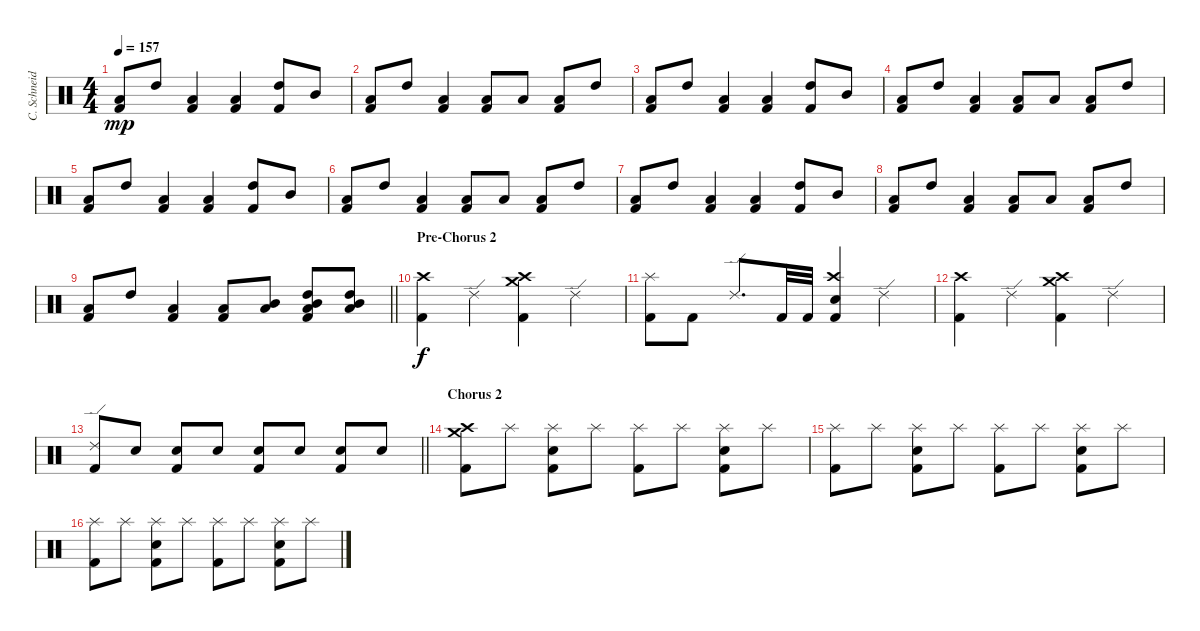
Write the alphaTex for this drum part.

\track ("C. Schneider" "C. Schneid") {instrument percussion}
\staff {score}
\articulation defaults
\ts (4 4)
\tempo 157
\clef neutral
\ks c
("Kick (hit) 2" "Low Tom (hit)").8{dy mp} "High Tom (hit)".8 ("Kick (hit) 2" "Low Tom (hit)").4 ("Kick (hit) 2" "Low Tom (hit)").4 ("Kick (hit) 2" "High Tom (hit)").8 "Mid Tom (hit)".8 |
("Kick (hit) 2" "Low Tom (hit)").8 "High Tom (hit)".8 ("Kick (hit) 2" "Low Tom (hit)").4 ("Kick (hit) 2" "Low Tom (hit)").8 "Low Tom (hit)".8 ("Kick (hit) 2" "Low Tom (hit)").8 "High Tom (hit)".8 |
("Kick (hit) 2" "Low Tom (hit)").8 "High Tom (hit)".8 ("Kick (hit) 2" "Low Tom (hit)").4 ("Kick (hit) 2" "Low Tom (hit)").4 ("Kick (hit) 2" "High Tom (hit)").8 "Mid Tom (hit)".8 |
("Kick (hit) 2" "Low Tom (hit)").8 "High Tom (hit)".8 ("Kick (hit) 2" "Low Tom (hit)").4 ("Kick (hit) 2" "Low Tom (hit)").8 "Low Tom (hit)".8 ("Kick (hit) 2" "Low Tom (hit)").8 "High Tom (hit)".8 |
("Kick (hit) 2" "Low Tom (hit)").8 "High Tom (hit)".8 ("Kick (hit) 2" "Low Tom (hit)").4 ("Kick (hit) 2" "Low Tom (hit)").4 ("Kick (hit) 2" "High Tom (hit)").8 "Mid Tom (hit)".8 |
("Kick (hit) 2" "Low Tom (hit)").8 "High Tom (hit)".8 ("Kick (hit) 2" "Low Tom (hit)").4 ("Kick (hit) 2" "Low Tom (hit)").8 "Low Tom (hit)".8 ("Kick (hit) 2" "Low Tom (hit)").8 "High Tom (hit)".8 |
("Kick (hit) 2" "Low Tom (hit)").8 "High Tom (hit)".8 ("Kick (hit) 2" "Low Tom (hit)").4 ("Kick (hit) 2" "Low Tom (hit)").4 ("Kick (hit) 2" "High Tom (hit)").8 "Mid Tom (hit)".8 |
("Kick (hit) 2" "Low Tom (hit)").8 "High Tom (hit)".8 ("Kick (hit) 2" "Low Tom (hit)").4 ("Kick (hit) 2" "Low Tom (hit)").8 "Low Tom (hit)".8 ("Kick (hit) 2" "Low Tom (hit)").8 "High Tom (hit)".8 |
\barLineRight lightlight
("Kick (hit) 2" "Low Tom (hit)").8 "High Tom (hit)".8 ("Kick (hit) 2" "Low Tom (hit)").4 ("Kick (hit) 2" "Low Tom (hit)").8 ("Low Tom (hit)" "Mid Tom (hit)").8 ("Kick (hit) 2" "Low Tom (hit)" "Mid Tom (hit)" "High Tom (hit)").8 ("Low Tom (hit)" "Mid Tom (hit)" "High Tom (hit)").8 |
\section ("" "Pre-Chorus 2")
("Kick (hit) 2" "Crash high (hit)").4{dy f} "Ride (edge) 2".4 ("Kick (hit) 2" "Crash high (hit)" "Crash medium (hit)").4 "Ride (edge) 2".4 |
("Kick (hit) 2" "Splash (hit)").8 "Kick (hit) 2".8 "Ride (edge) 2".8{d} "Kick (hit) 2".32 "Kick (hit) 2".32 ("Kick (hit) 2" "Electric Snare (hit)" "Crash high (hit)").4 "Ride (edge) 2".4 |
("Kick (hit) 2" "Crash high (hit)").4 "Ride (edge) 2".4 ("Kick (hit) 2" "Crash high (hit)" "Crash medium (hit)").4 "Ride (edge) 2".4 |
\barLineRight lightlight
("Kick (hit) 2" "Ride (edge) 2").8 "Electric Snare (hit)".8 ("Kick (hit) 2" "Electric Snare (hit)").8 "Electric Snare (hit)".8 ("Kick (hit) 2" "Electric Snare (hit)").8 "Electric Snare (hit)".8 ("Kick (hit) 2" "Electric Snare (hit)").8 "Electric Snare (hit)".8 |
\section ("" "Chorus 2")
("Kick (hit) 2" "Crash high (hit)" "Crash medium (hit)").8 "Splash (hit)".8 ("Kick (hit) 2" "Electric Snare (hit)" "Splash (hit)").8 "Splash (hit)".8 ("Kick (hit) 2" "Splash (hit)").8 "Splash (hit)".8 ("Kick (hit) 2" "Electric Snare (hit)" "Splash (hit)").8 "Splash (hit)".8 |
("Kick (hit) 2" "Splash (hit)").8 "Splash (hit)".8 ("Kick (hit) 2" "Electric Snare (hit)" "Splash (hit)").8 "Splash (hit)".8 ("Kick (hit) 2" "Splash (hit)").8 "Splash (hit)".8 ("Kick (hit) 2" "Electric Snare (hit)" "Splash (hit)").8 "Splash (hit)".8 |
("Kick (hit) 2" "Splash (hit)").8 "Splash (hit)".8 ("Kick (hit) 2" "Electric Snare (hit)" "Splash (hit)").8 "Splash (hit)".8 ("Kick (hit) 2" "Splash (hit)").8 "Splash (hit)".8 ("Kick (hit) 2" "Electric Snare (hit)" "Splash (hit)").8 "Splash (hit)".8
